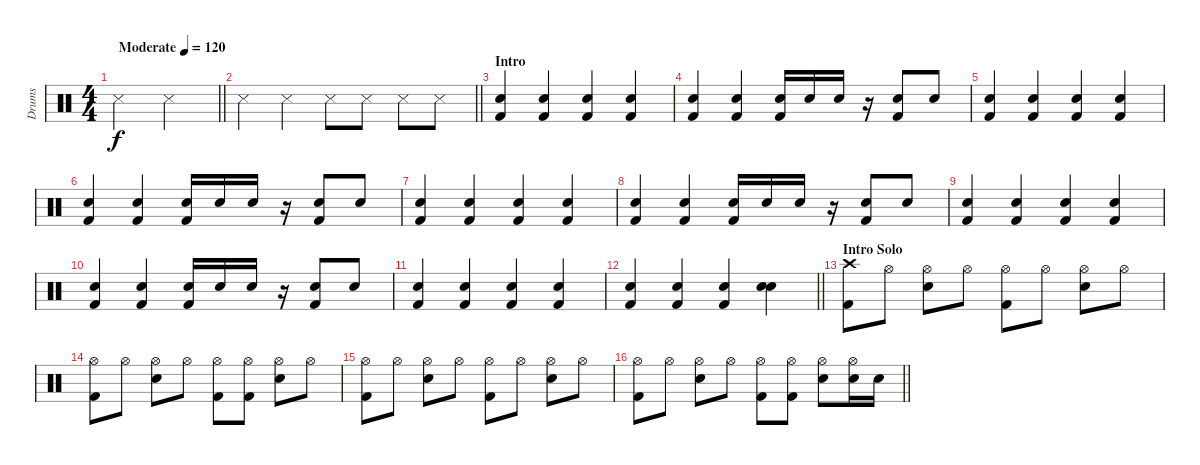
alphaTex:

\track ("Drums" "Drums") {instrument percussion}
\staff {score}
\articulation defaults
\ts (4 4)
\tempo (120 "Moderate")
\clef neutral
\barLineRight lightlight
\ks c "Snare (side stick) 3".2{dy f} "Snare (side stick) 3".2
|
\barLineRight lightlight "Snare (side stick) 3".4 "Snare (side stick) 3".4 "Snare (side stick) 3".8 "Snare (side stick) 3".8 "Snare (side stick) 3".8 "Snare (side stick) 3".8
|
\section ("" "Intro")
("Snare (hit) 2" "Kick (hit) 2").4 ("Snare (hit) 2" "Kick (hit) 2").4 ("Snare (hit) 2" "Kick (hit) 2").4 ("Snare (hit) 2" "Kick (hit) 2").4 |
("Snare (hit) 2" "Kick (hit) 2").4 ("Snare (hit) 2" "Kick (hit) 2").4 ("Snare (hit) 2" "Kick (hit) 2").16 "Snare (hit) 2".16 "Snare (hit) 2".16 r.16 ("Snare (hit) 2" "Kick (hit) 2").8 "Snare (hit) 2".8 |
("Snare (hit) 2" "Kick (hit) 2").4 ("Snare (hit) 2" "Kick (hit) 2").4 ("Snare (hit) 2" "Kick (hit) 2").4 ("Snare (hit) 2" "Kick (hit) 2").4 |
("Snare (hit) 2" "Kick (hit) 2").4 ("Snare (hit) 2" "Kick (hit) 2").4 ("Snare (hit) 2" "Kick (hit) 2").16 "Snare (hit) 2".16 "Snare (hit) 2".16 r.16 ("Snare (hit) 2" "Kick (hit) 2").8 "Snare (hit) 2".8 |
("Snare (hit) 2" "Kick (hit) 2").4 ("Snare (hit) 2" "Kick (hit) 2").4 ("Snare (hit) 2" "Kick (hit) 2").4 ("Snare (hit) 2" "Kick (hit) 2").4 |
("Snare (hit) 2" "Kick (hit) 2").4 ("Snare (hit) 2" "Kick (hit) 2").4 ("Snare (hit) 2" "Kick (hit) 2").16 "Snare (hit) 2".16 "Snare (hit) 2".16 r.16 ("Snare (hit) 2" "Kick (hit) 2").8 "Snare (hit) 2".8 |
("Snare (hit) 2" "Kick (hit) 2").4 ("Snare (hit) 2" "Kick (hit) 2").4 ("Snare (hit) 2" "Kick (hit) 2").4 ("Snare (hit) 2" "Kick (hit) 2").4 |
("Snare (hit) 2" "Kick (hit) 2").4 ("Snare (hit) 2" "Kick (hit) 2").4 ("Snare (hit) 2" "Kick (hit) 2").16 "Snare (hit) 2".16 "Snare (hit) 2".16 r.16 ("Snare (hit) 2" "Kick (hit) 2").8 "Snare (hit) 2".8 |
("Snare (hit) 2" "Kick (hit) 2").4 ("Snare (hit) 2" "Kick (hit) 2").4 ("Snare (hit) 2" "Kick (hit) 2").4 ("Snare (hit) 2" "Kick (hit) 2").4 |
\barLineRight lightlight
("Snare (hit) 2" "Kick (hit) 2").4 ("Snare (hit) 2" "Kick (hit) 2").4 ("Snare (hit) 2" "Kick (hit) 2").4 ("Snare (hit) 2" "Snare (hit) 2").4 |
\section ("" "Intro Solo")
("Crash high (hit)" "Kick (hit) 2").8 "Hi-Hat (open)".8 ("Hi-Hat (open)" "Snare (hit) 2").8 "Hi-Hat (open)".8 ("Hi-Hat (open)" "Kick (hit) 2").8 "Hi-Hat (open)".8 ("Hi-Hat (open)" "Snare (hit) 2").8 "Hi-Hat (open)".8 |
("Hi-Hat (open)" "Kick (hit) 2").8 "Hi-Hat (open)".8 ("Hi-Hat (open)" "Snare (hit) 2").8 "Hi-Hat (open)".8 ("Hi-Hat (open)" "Kick (hit) 2").8 ("Hi-Hat (open)" "Kick (hit) 2").8 ("Hi-Hat (open)" "Snare (hit) 2").8 "Hi-Hat (open)".8 |
("Hi-Hat (open)" "Kick (hit) 2").8 "Hi-Hat (open)".8 ("Hi-Hat (open)" "Snare (hit) 2").8 "Hi-Hat (open)".8 ("Hi-Hat (open)" "Kick (hit) 2").8 "Hi-Hat (open)".8 ("Hi-Hat (open)" "Snare (hit) 2").8 "Hi-Hat (open)".8 |
\barLineRight lightlight
("Hi-Hat (open)" "Kick (hit) 2").8 "Hi-Hat (open)".8 ("Hi-Hat (open)" "Snare (hit) 2").8 "Hi-Hat (open)".8 ("Hi-Hat (open)" "Kick (hit) 2").8 ("Hi-Hat (open)" "Kick (hit) 2").8 ("Hi-Hat (open)" "Snare (hit) 2").8 ("Hi-Hat (open)" "Snare (hit) 2").16 "Snare (hit) 2".16
